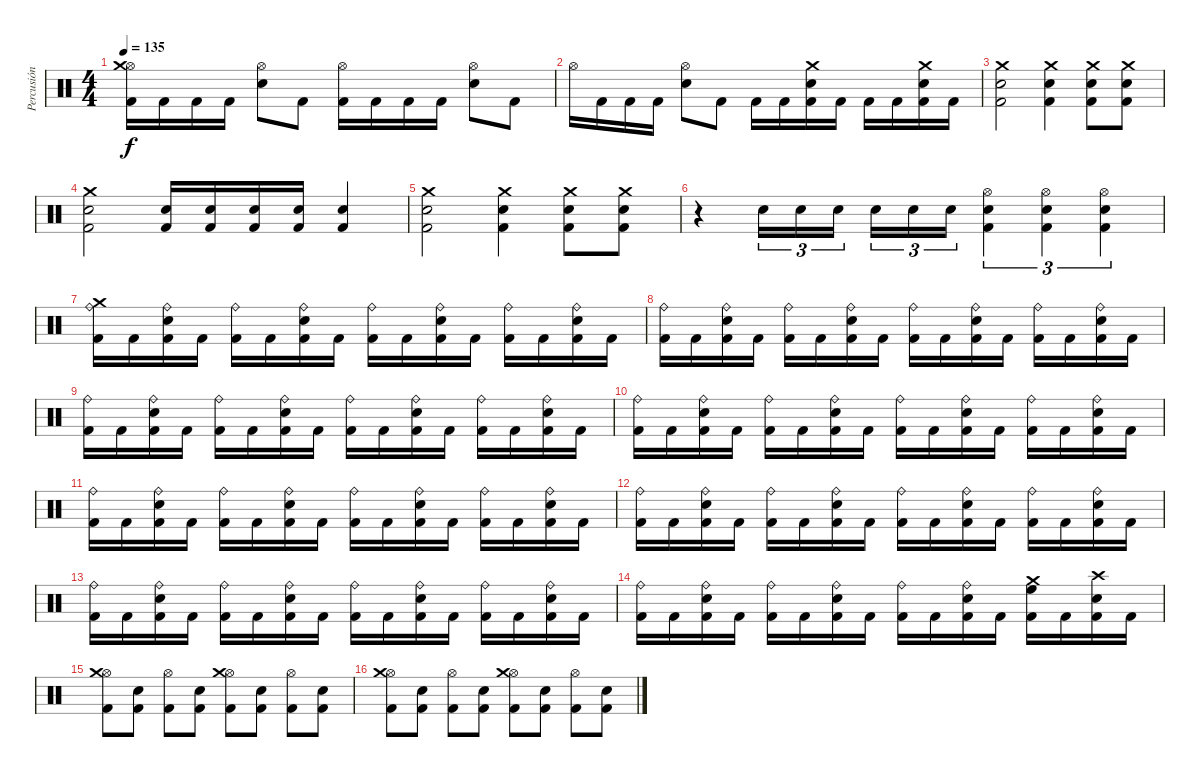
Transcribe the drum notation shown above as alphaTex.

\track ("Percusión" "Percusión") {instrument percussion}
\staff {score}
\articulation defaults
\ts (4 4)
\tempo 135
\clef neutral
\ks c
("Hi-Hat (open)" "Crash medium (hit)" "Kick (hit) 2").16{dy f} "Kick (hit) 2".16 "Kick (hit) 2".16 "Kick (hit) 2".16 ("Hi-Hat (open)" "Electric Snare (hit)").8 "Kick (hit) 2".8 ("Hi-Hat (open)" "Kick (hit) 2").16 "Kick (hit) 2".16 "Kick (hit) 2".16 "Kick (hit) 2".16 ("Hi-Hat (open)" "Electric Snare (hit)").8 "Kick (hit) 2".8 |
"Hi-Hat (open)".16 "Kick (hit) 2".16 "Kick (hit) 2".16 "Kick (hit) 2".16 ("Hi-Hat (open)" "Electric Snare (hit)").8 "Kick (hit) 2".8 "Kick (hit) 2".16 "Kick (hit) 2".16 ("Crash medium (hit)" "Snare (hit) 2" "Kick (hit) 2").16 "Kick (hit) 2".16 "Kick (hit) 2".16 "Kick (hit) 2".16 ("Crash medium (hit)" "Snare (hit) 2" "Kick (hit) 2").16 "Kick (hit) 2".16 |
("Crash medium (hit)" "Snare (hit) 2" "Kick (hit) 2").2 ("Crash medium (hit)" "Snare (hit) 2" "Kick (hit) 2").4 ("Crash medium (hit)" "Snare (hit) 2" "Kick (hit) 2").8 ("Crash medium (hit)" "Snare (hit) 2" "Kick (hit) 2").8 |
("Crash medium (hit)" "Snare (hit) 2" "Kick (hit) 2").2 ("Electric Snare (hit)" "Kick (hit) 2").16 ("Electric Snare (hit)" "Kick (hit) 2").16 ("Electric Snare (hit)" "Kick (hit) 2").16 ("Electric Snare (hit)" "Kick (hit) 2").16 ("Snare (hit) 2" "Kick (hit) 2").4 |
("Crash medium (hit)" "Snare (hit) 2" "Kick (hit) 2").2 ("Crash medium (hit)" "Snare (hit) 2" "Kick (hit) 2").4 ("Crash medium (hit)" "Snare (hit) 2" "Kick (hit) 2").8 ("Crash medium (hit)" "Snare (hit) 2" "Kick (hit) 2").8 |
r.4 "Snare (hit) 2".16{tu (3 2)} "Snare (hit) 2".16{tu (3 2)} "Snare (hit) 2".16{tu (3 2)} "Snare (hit) 2".16{tu (3 2)} "Snare (hit) 2".16{tu (3 2)} "Snare (hit) 2".16{tu (3 2)} ("Hi-Hat (open)" "Snare (hit) 2" "Kick (hit) 2").4{tu (3 2)} ("Hi-Hat (open)" "Snare (hit) 2" "Kick (hit) 2").4{tu (3 2)} ("Hi-Hat (open)" "Snare (hit) 2" "Kick (hit) 2").4{tu (3 2)} |
("Ride (bell)" "Crash medium (hit)" "Kick (hit) 2").16 "Kick (hit) 2".16 ("Ride (bell)" "Snare (hit) 2" "Kick (hit) 2").16 "Kick (hit) 2".16 ("Ride (bell)" "Kick (hit) 2").16 "Kick (hit) 2".16 ("Ride (bell)" "Snare (hit) 2" "Kick (hit) 2").16 "Kick (hit) 2".16 ("Ride (bell)" "Kick (hit) 2").16 "Kick (hit) 2".16 ("Ride (bell)" "Snare (hit) 2" "Kick (hit) 2").16 "Kick (hit) 2".16 ("Ride (bell)" "Kick (hit) 2").16 "Kick (hit) 2".16 ("Ride (bell)" "Snare (hit) 2" "Kick (hit) 2").16 "Kick (hit) 2".16 |
("Ride (bell)" "Kick (hit) 2").16 "Kick (hit) 2".16 ("Ride (bell)" "Snare (hit) 2" "Kick (hit) 2").16 "Kick (hit) 2".16 ("Ride (bell)" "Kick (hit) 2").16 "Kick (hit) 2".16 ("Ride (bell)" "Snare (hit) 2" "Kick (hit) 2").16 "Kick (hit) 2".16 ("Ride (bell)" "Kick (hit) 2").16 "Kick (hit) 2".16 ("Ride (bell)" "Snare (hit) 2" "Kick (hit) 2").16 "Kick (hit) 2".16 ("Ride (bell)" "Kick (hit) 2").16 "Kick (hit) 2".16 ("Ride (bell)" "Snare (hit) 2" "Kick (hit) 2").16 "Kick (hit) 2".16 |
("Ride (bell)" "Kick (hit) 2").16 "Kick (hit) 2".16 ("Ride (bell)" "Snare (hit) 2" "Kick (hit) 2").16 "Kick (hit) 2".16 ("Ride (bell)" "Kick (hit) 2").16 "Kick (hit) 2".16 ("Ride (bell)" "Snare (hit) 2" "Kick (hit) 2").16 "Kick (hit) 2".16 ("Ride (bell)" "Kick (hit) 2").16 "Kick (hit) 2".16 ("Ride (bell)" "Snare (hit) 2" "Kick (hit) 2").16 "Kick (hit) 2".16 ("Ride (bell)" "Kick (hit) 2").16 "Kick (hit) 2".16 ("Ride (bell)" "Snare (hit) 2" "Kick (hit) 2").16 "Kick (hit) 2".16 |
("Ride (bell)" "Kick (hit) 2").16 "Kick (hit) 2".16 ("Ride (bell)" "Snare (hit) 2" "Kick (hit) 2").16 "Kick (hit) 2".16 ("Ride (bell)" "Kick (hit) 2").16 "Kick (hit) 2".16 ("Ride (bell)" "Snare (hit) 2" "Kick (hit) 2").16 "Kick (hit) 2".16 ("Ride (bell)" "Kick (hit) 2").16 "Kick (hit) 2".16 ("Ride (bell)" "Snare (hit) 2" "Kick (hit) 2").16 "Kick (hit) 2".16 ("Ride (bell)" "Kick (hit) 2").16 "Kick (hit) 2".16 ("Ride (bell)" "Snare (hit) 2" "Kick (hit) 2").16 "Kick (hit) 2".16 |
("Ride (bell)" "Kick (hit) 2").16 "Kick (hit) 2".16 ("Ride (bell)" "Snare (hit) 2" "Kick (hit) 2").16 "Kick (hit) 2".16 ("Ride (bell)" "Kick (hit) 2").16 "Kick (hit) 2".16 ("Ride (bell)" "Snare (hit) 2" "Kick (hit) 2").16 "Kick (hit) 2".16 ("Ride (bell)" "Kick (hit) 2").16 "Kick (hit) 2".16 ("Ride (bell)" "Snare (hit) 2" "Kick (hit) 2").16 "Kick (hit) 2".16 ("Ride (bell)" "Kick (hit) 2").16 "Kick (hit) 2".16 ("Ride (bell)" "Snare (hit) 2" "Kick (hit) 2").16 "Kick (hit) 2".16 |
("Ride (bell)" "Kick (hit) 2").16 "Kick (hit) 2".16 ("Ride (bell)" "Snare (hit) 2" "Kick (hit) 2").16 "Kick (hit) 2".16 ("Ride (bell)" "Kick (hit) 2").16 "Kick (hit) 2".16 ("Ride (bell)" "Snare (hit) 2" "Kick (hit) 2").16 "Kick (hit) 2".16 ("Ride (bell)" "Kick (hit) 2").16 "Kick (hit) 2".16 ("Ride (bell)" "Snare (hit) 2" "Kick (hit) 2").16 "Kick (hit) 2".16 ("Ride (bell)" "Kick (hit) 2").16 "Kick (hit) 2".16 ("Ride (bell)" "Snare (hit) 2" "Kick (hit) 2").16 "Kick (hit) 2".16 |
("Ride (bell)" "Kick (hit) 2").16 "Kick (hit) 2".16 ("Ride (bell)" "Snare (hit) 2" "Kick (hit) 2").16 "Kick (hit) 2".16 ("Ride (bell)" "Kick (hit) 2").16 "Kick (hit) 2".16 ("Ride (bell)" "Snare (hit) 2" "Kick (hit) 2").16 "Kick (hit) 2".16 ("Ride (bell)" "Kick (hit) 2").16 "Kick (hit) 2".16 ("Ride (bell)" "Snare (hit) 2" "Kick (hit) 2").16 "Kick (hit) 2".16 ("Ride (bell)" "Kick (hit) 2").16 "Kick (hit) 2".16 ("Ride (bell)" "Snare (hit) 2" "Kick (hit) 2").16 "Kick (hit) 2".16 |
("Ride (bell)" "Kick (hit) 2").16 "Kick (hit) 2".16 ("Ride (bell)" "Snare (hit) 2" "Kick (hit) 2").16 "Kick (hit) 2".16 ("Ride (bell)" "Kick (hit) 2").16 "Kick (hit) 2".16 ("Ride (bell)" "Snare (hit) 2" "Kick (hit) 2").16 "Kick (hit) 2".16 ("Ride (bell)" "Kick (hit) 2").16 "Kick (hit) 2".16 ("Ride (bell)" "Snare (hit) 2" "Kick (hit) 2").16 "Kick (hit) 2".16 ("Crash medium (hit)" "High Floor Tom (hit)" "Kick (hit) 2").16 "Kick (hit) 2".16 ("Crash high (hit)" "Snare (hit) 2" "Kick (hit) 2").16 "Kick (hit) 2".16 |
("Hi-Hat (open)" "Crash medium (hit)" "Kick (hit) 2").8 ("Snare (hit) 2" "Kick (hit) 2").8 ("Hi-Hat (open)" "Kick (hit) 2").8 ("Snare (hit) 2" "Kick (hit) 2").8 ("Hi-Hat (open)" "Crash medium (hit)" "Kick (hit) 2").8 ("Snare (hit) 2" "Kick (hit) 2").8 ("Hi-Hat (open)" "Kick (hit) 2").8 ("Snare (hit) 2" "Kick (hit) 2").8 |
("Hi-Hat (open)" "Crash medium (hit)" "Kick (hit) 2").8 ("Snare (hit) 2" "Kick (hit) 2").8 ("Hi-Hat (open)" "Kick (hit) 2").8 ("Snare (hit) 2" "Kick (hit) 2").8 ("Hi-Hat (open)" "Crash medium (hit)" "Kick (hit) 2").8 ("Snare (hit) 2" "Kick (hit) 2").8 ("Hi-Hat (open)" "Kick (hit) 2").8 ("Snare (hit) 2" "Kick (hit) 2").8
